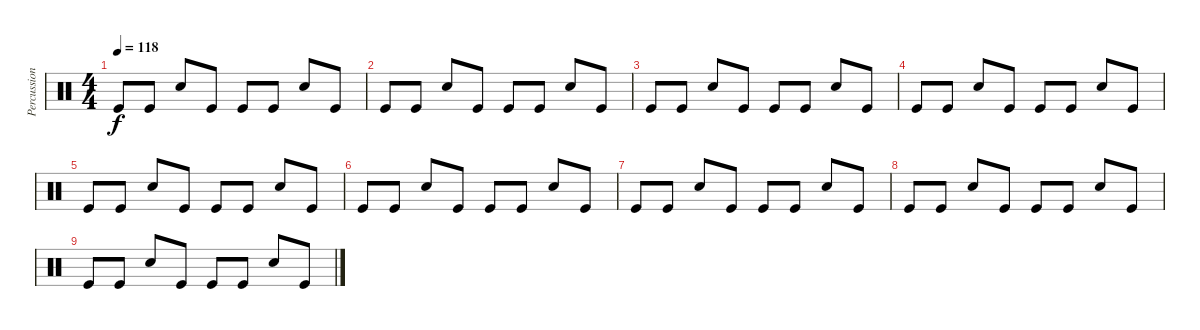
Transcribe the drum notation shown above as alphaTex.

\track ("Percussion" "Percussion") {instrument percussion}
\staff {score}
\articulation defaults
\ts (4 4)
\tempo 118
\clef neutral
\ks c "Kick (hit)".8{dy f} "Kick (hit)".8 "Snare (hit) 2".8 "Kick (hit)".8 "Kick (hit)".8 "Kick (hit)".8 "Snare (hit) 2".8 "Kick (hit)".8
|
"Kick (hit)".8 "Kick (hit)".8 "Snare (hit) 2".8 "Kick (hit)".8 "Kick (hit)".8 "Kick (hit)".8 "Snare (hit) 2".8 "Kick (hit)".8 |
"Kick (hit)".8 "Kick (hit)".8 "Snare (hit) 2".8 "Kick (hit)".8 "Kick (hit)".8 "Kick (hit)".8 "Snare (hit) 2".8 "Kick (hit)".8 |
"Kick (hit)".8 "Kick (hit)".8 "Snare (hit) 2".8 "Kick (hit)".8 "Kick (hit)".8 "Kick (hit)".8 "Snare (hit) 2".8 "Kick (hit)".8 |
"Kick (hit)".8 "Kick (hit)".8 "Snare (hit) 2".8 "Kick (hit)".8 "Kick (hit)".8 "Kick (hit)".8 "Snare (hit) 2".8 "Kick (hit)".8 |
"Kick (hit)".8 "Kick (hit)".8 "Snare (hit) 2".8 "Kick (hit)".8 "Kick (hit)".8 "Kick (hit)".8 "Snare (hit) 2".8 "Kick (hit)".8 |
"Kick (hit)".8 "Kick (hit)".8 "Snare (hit) 2".8 "Kick (hit)".8 "Kick (hit)".8 "Kick (hit)".8 "Snare (hit) 2".8 "Kick (hit)".8 |
"Kick (hit)".8 "Kick (hit)".8 "Snare (hit) 2".8 "Kick (hit)".8 "Kick (hit)".8 "Kick (hit)".8 "Snare (hit) 2".8 "Kick (hit)".8 |
"Kick (hit)".8 "Kick (hit)".8 "Snare (hit) 2".8 "Kick (hit)".8 "Kick (hit)".8 "Kick (hit)".8 "Snare (hit) 2".8 "Kick (hit)".8
